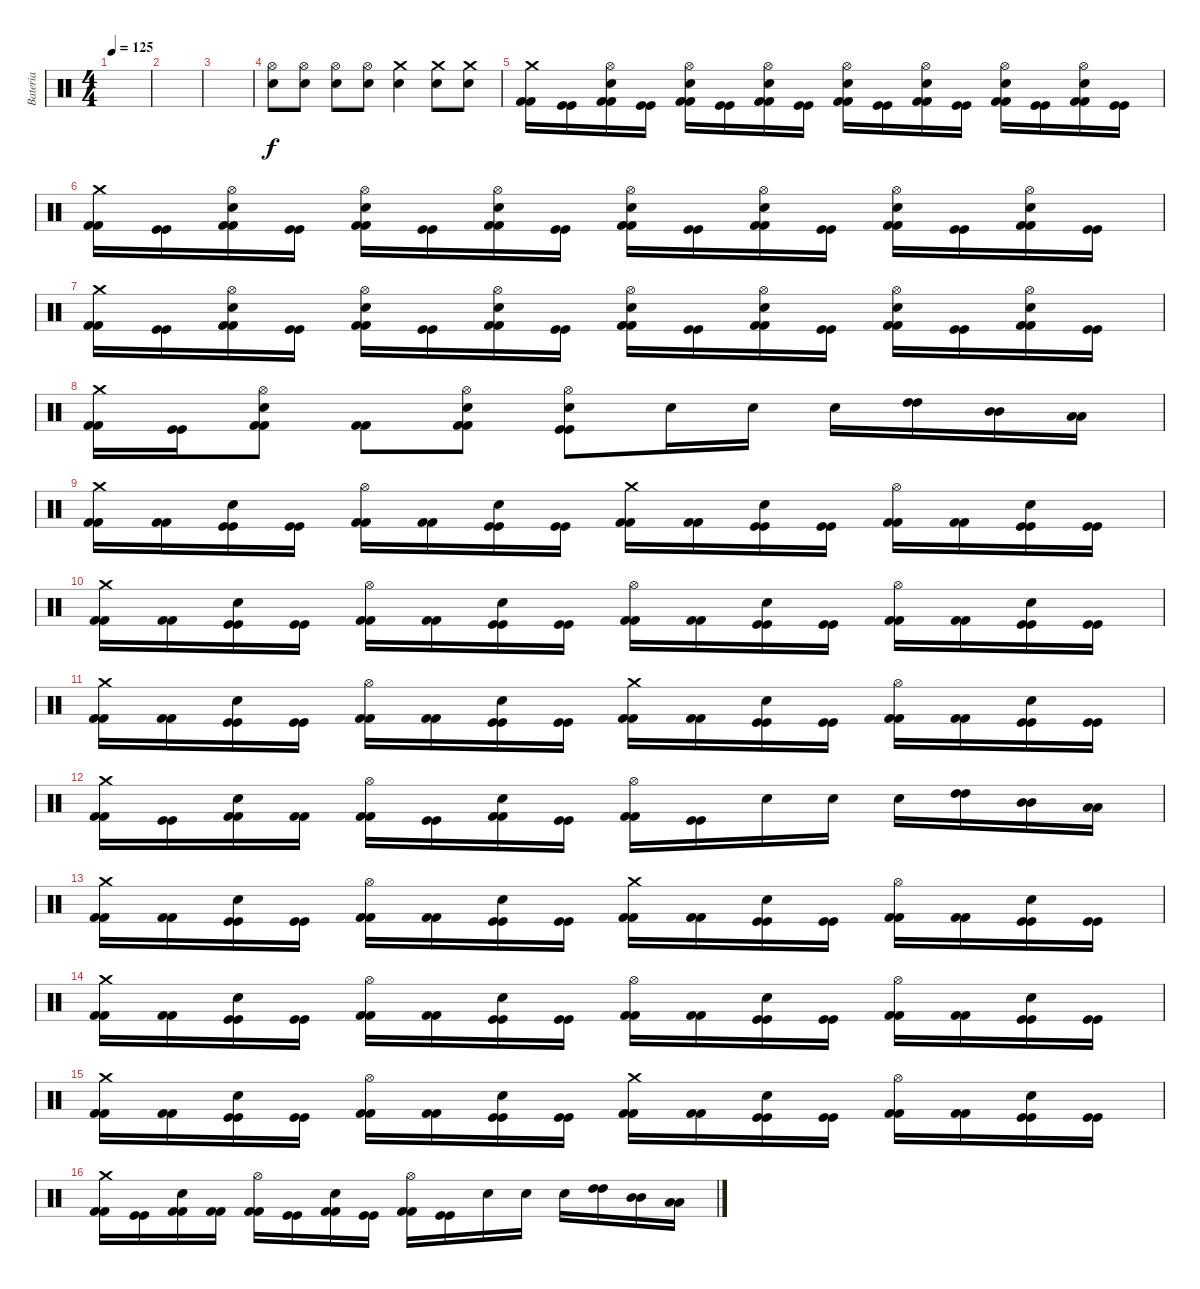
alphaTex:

\track ("Bateria" "Bateria") {instrument percussion}
\staff {score}
\articulation defaults
\ts (4 4)
\tempo 125
\clef neutral
\ks c
|
|
|
("Hi-Hat (open)" "Electric Snare (hit)").8 ("Hi-Hat (open)" "Electric Snare (hit)").8 ("Hi-Hat (open)" "Electric Snare (hit)").8 ("Hi-Hat (open)" "Electric Snare (hit)").8 ("Crash medium (hit)" "Electric Snare (hit)").4 ("Crash medium (hit)" "Electric Snare (hit)").8 ("Crash medium (hit)" "Electric Snare (hit)").8 |
("Crash medium (hit)" "Kick (hit) 2" "Kick (hit) 2").16 ("Kick (hit)" "Kick (hit)").16 ("Hi-Hat (open)" "Electric Snare (hit)" "Kick (hit) 2" "Kick (hit) 2").16 ("Kick (hit)" "Kick (hit)").16 ("Hi-Hat (open)" "Electric Snare (hit)" "Kick (hit) 2" "Kick (hit) 2").16 ("Kick (hit)" "Kick (hit)").16 ("Hi-Hat (open)" "Electric Snare (hit)" "Kick (hit) 2" "Kick (hit) 2").16 ("Kick (hit)" "Kick (hit)").16 ("Hi-Hat (open)" "Electric Snare (hit)" "Kick (hit) 2" "Kick (hit) 2").16 ("Kick (hit)" "Kick (hit)").16 ("Hi-Hat (open)" "Electric Snare (hit)" "Kick (hit) 2" "Kick (hit) 2").16 ("Kick (hit)" "Kick (hit)").16 ("Hi-Hat (open)" "Electric Snare (hit)" "Kick (hit) 2" "Kick (hit) 2").16 ("Kick (hit)" "Kick (hit)").16 ("Hi-Hat (open)" "Electric Snare (hit)" "Kick (hit) 2" "Kick (hit) 2").16 ("Kick (hit)" "Kick (hit)").16 |
("Crash medium (hit)" "Kick (hit) 2" "Kick (hit) 2").16 ("Kick (hit)" "Kick (hit)").16 ("Hi-Hat (open)" "Electric Snare (hit)" "Kick (hit) 2" "Kick (hit) 2").16 ("Kick (hit)" "Kick (hit)").16 ("Hi-Hat (open)" "Electric Snare (hit)" "Kick (hit) 2" "Kick (hit) 2").16 ("Kick (hit)" "Kick (hit)").16 ("Hi-Hat (open)" "Electric Snare (hit)" "Kick (hit) 2" "Kick (hit) 2").16 ("Kick (hit)" "Kick (hit)").16 ("Hi-Hat (open)" "Electric Snare (hit)" "Kick (hit) 2" "Kick (hit) 2").16 ("Kick (hit)" "Kick (hit)").16 ("Hi-Hat (open)" "Electric Snare (hit)" "Kick (hit) 2" "Kick (hit) 2").16 ("Kick (hit)" "Kick (hit)").16 ("Hi-Hat (open)" "Electric Snare (hit)" "Kick (hit) 2" "Kick (hit) 2").16 ("Kick (hit)" "Kick (hit)").16 ("Hi-Hat (open)" "Electric Snare (hit)" "Kick (hit) 2" "Kick (hit) 2").16 ("Kick (hit)" "Kick (hit)").16 |
("Crash medium (hit)" "Kick (hit) 2" "Kick (hit) 2").16 ("Kick (hit)" "Kick (hit)").16 ("Hi-Hat (open)" "Electric Snare (hit)" "Kick (hit) 2" "Kick (hit) 2").16 ("Kick (hit)" "Kick (hit)").16 ("Hi-Hat (open)" "Electric Snare (hit)" "Kick (hit) 2" "Kick (hit) 2").16 ("Kick (hit)" "Kick (hit)").16 ("Hi-Hat (open)" "Electric Snare (hit)" "Kick (hit) 2" "Kick (hit) 2").16 ("Kick (hit)" "Kick (hit)").16 ("Hi-Hat (open)" "Electric Snare (hit)" "Kick (hit) 2" "Kick (hit) 2").16 ("Kick (hit)" "Kick (hit)").16 ("Hi-Hat (open)" "Electric Snare (hit)" "Kick (hit) 2" "Kick (hit) 2").16 ("Kick (hit)" "Kick (hit)").16 ("Hi-Hat (open)" "Electric Snare (hit)" "Kick (hit) 2" "Kick (hit) 2").16 ("Kick (hit)" "Kick (hit)").16 ("Hi-Hat (open)" "Electric Snare (hit)" "Kick (hit) 2" "Kick (hit) 2").16 ("Kick (hit)" "Kick (hit)").16 |
("Crash medium (hit)" "Kick (hit) 2" "Kick (hit) 2").16 ("Kick (hit)" "Kick (hit)").16 ("Hi-Hat (open)" "Electric Snare (hit)" "Kick (hit) 2" "Kick (hit) 2").8 ("Kick (hit) 2" "Kick (hit) 2").8 ("Hi-Hat (open)" "Electric Snare (hit)" "Kick (hit) 2" "Kick (hit) 2").8 ("Hi-Hat (open)" "Electric Snare (hit)" "Kick (hit)" "Kick (hit)").8 "Electric Snare (hit)".16 "Electric Snare (hit)".16 "Electric Snare (hit)".16 ("High Tom (hit)" "High Tom (hit)").16 ("Mid Tom (hit)" "Mid Tom (hit)").16 ("Low Tom (hit)" "Low Tom (hit)").16 |
("Crash medium (hit)" "Kick (hit) 2" "Kick (hit) 2").16 ("Kick (hit) 2" "Kick (hit) 2").16 ("Electric Snare (hit)" "Kick (hit)" "Kick (hit)").16 ("Kick (hit)" "Kick (hit)").16 ("Hi-Hat (open)" "Kick (hit) 2" "Kick (hit) 2").16 ("Kick (hit) 2" "Kick (hit) 2").16 ("Electric Snare (hit)" "Kick (hit)" "Kick (hit)").16 ("Kick (hit)" "Kick (hit)").16 ("Crash medium (hit)" "Kick (hit) 2" "Kick (hit) 2").16 ("Kick (hit) 2" "Kick (hit) 2").16 ("Electric Snare (hit)" "Kick (hit)" "Kick (hit)").16 ("Kick (hit)" "Kick (hit)").16 ("Hi-Hat (open)" "Kick (hit) 2" "Kick (hit) 2").16 ("Kick (hit) 2" "Kick (hit) 2").16 ("Electric Snare (hit)" "Kick (hit)" "Kick (hit)").16 ("Kick (hit)" "Kick (hit)").16 |
("Crash medium (hit)" "Kick (hit) 2" "Kick (hit) 2").16 ("Kick (hit) 2" "Kick (hit) 2").16 ("Electric Snare (hit)" "Kick (hit)" "Kick (hit)").16 ("Kick (hit)" "Kick (hit)").16 ("Hi-Hat (open)" "Kick (hit) 2" "Kick (hit) 2").16 ("Kick (hit) 2" "Kick (hit) 2").16 ("Electric Snare (hit)" "Kick (hit)" "Kick (hit)").16 ("Kick (hit)" "Kick (hit)").16 ("Hi-Hat (open)" "Kick (hit) 2" "Kick (hit) 2").16 ("Kick (hit) 2" "Kick (hit) 2").16 ("Electric Snare (hit)" "Kick (hit)" "Kick (hit)").16 ("Kick (hit)" "Kick (hit)").16 ("Hi-Hat (open)" "Kick (hit) 2" "Kick (hit) 2").16 ("Kick (hit) 2" "Kick (hit) 2").16 ("Electric Snare (hit)" "Kick (hit)" "Kick (hit)").16 ("Kick (hit)" "Kick (hit)").16 |
("Crash medium (hit)" "Kick (hit) 2" "Kick (hit) 2").16 ("Kick (hit) 2" "Kick (hit) 2").16 ("Electric Snare (hit)" "Kick (hit)" "Kick (hit)").16 ("Kick (hit)" "Kick (hit)").16 ("Hi-Hat (open)" "Kick (hit) 2" "Kick (hit) 2").16 ("Kick (hit) 2" "Kick (hit) 2").16 ("Electric Snare (hit)" "Kick (hit)" "Kick (hit)").16 ("Kick (hit)" "Kick (hit)").16 ("Crash medium (hit)" "Kick (hit) 2" "Kick (hit) 2").16 ("Kick (hit) 2" "Kick (hit) 2").16 ("Electric Snare (hit)" "Kick (hit)" "Kick (hit)").16 ("Kick (hit)" "Kick (hit)").16 ("Hi-Hat (open)" "Kick (hit) 2" "Kick (hit) 2").16 ("Kick (hit) 2" "Kick (hit) 2").16 ("Electric Snare (hit)" "Kick (hit)" "Kick (hit)").16 ("Kick (hit)" "Kick (hit)").16 |
("Crash medium (hit)" "Kick (hit) 2" "Kick (hit) 2").16 ("Kick (hit)" "Kick (hit)").16 ("Electric Snare (hit)" "Kick (hit) 2" "Kick (hit) 2").16 ("Kick (hit) 2" "Kick (hit) 2").16 ("Hi-Hat (open)" "Kick (hit) 2" "Kick (hit) 2").16 ("Kick (hit)" "Kick (hit)").16 ("Electric Snare (hit)" "Kick (hit) 2" "Kick (hit) 2").16 ("Kick (hit)" "Kick (hit)").16 ("Hi-Hat (open)" "Kick (hit) 2" "Kick (hit) 2").16 ("Kick (hit)" "Kick (hit)").16 "Electric Snare (hit)".16 "Electric Snare (hit)".16 "Electric Snare (hit)".16 ("High Tom (hit)" "High Tom (hit)").16 ("Mid Tom (hit)" "Mid Tom (hit)").16 ("Low Tom (hit)" "Low Tom (hit)").16 |
("Crash medium (hit)" "Kick (hit) 2" "Kick (hit) 2").16 ("Kick (hit) 2" "Kick (hit) 2").16 ("Electric Snare (hit)" "Kick (hit)" "Kick (hit)").16 ("Kick (hit)" "Kick (hit)").16 ("Hi-Hat (open)" "Kick (hit) 2" "Kick (hit) 2").16 ("Kick (hit) 2" "Kick (hit) 2").16 ("Electric Snare (hit)" "Kick (hit)" "Kick (hit)").16 ("Kick (hit)" "Kick (hit)").16 ("Crash medium (hit)" "Kick (hit) 2" "Kick (hit) 2").16 ("Kick (hit) 2" "Kick (hit) 2").16 ("Electric Snare (hit)" "Kick (hit)" "Kick (hit)").16 ("Kick (hit)" "Kick (hit)").16 ("Hi-Hat (open)" "Kick (hit) 2" "Kick (hit) 2").16 ("Kick (hit) 2" "Kick (hit) 2").16 ("Electric Snare (hit)" "Kick (hit)" "Kick (hit)").16 ("Kick (hit)" "Kick (hit)").16 |
("Crash medium (hit)" "Kick (hit) 2" "Kick (hit) 2").16 ("Kick (hit) 2" "Kick (hit) 2").16 ("Electric Snare (hit)" "Kick (hit)" "Kick (hit)").16 ("Kick (hit)" "Kick (hit)").16 ("Hi-Hat (open)" "Kick (hit) 2" "Kick (hit) 2").16 ("Kick (hit) 2" "Kick (hit) 2").16 ("Electric Snare (hit)" "Kick (hit)" "Kick (hit)").16 ("Kick (hit)" "Kick (hit)").16 ("Hi-Hat (open)" "Kick (hit) 2" "Kick (hit) 2").16 ("Kick (hit) 2" "Kick (hit) 2").16 ("Electric Snare (hit)" "Kick (hit)" "Kick (hit)").16 ("Kick (hit)" "Kick (hit)").16 ("Hi-Hat (open)" "Kick (hit) 2" "Kick (hit) 2").16 ("Kick (hit) 2" "Kick (hit) 2").16 ("Electric Snare (hit)" "Kick (hit)" "Kick (hit)").16 ("Kick (hit)" "Kick (hit)").16 |
("Crash medium (hit)" "Kick (hit) 2" "Kick (hit) 2").16 ("Kick (hit) 2" "Kick (hit) 2").16 ("Electric Snare (hit)" "Kick (hit)" "Kick (hit)").16 ("Kick (hit)" "Kick (hit)").16 ("Hi-Hat (open)" "Kick (hit) 2" "Kick (hit) 2").16 ("Kick (hit) 2" "Kick (hit) 2").16 ("Electric Snare (hit)" "Kick (hit)" "Kick (hit)").16 ("Kick (hit)" "Kick (hit)").16 ("Crash medium (hit)" "Kick (hit) 2" "Kick (hit) 2").16 ("Kick (hit) 2" "Kick (hit) 2").16 ("Electric Snare (hit)" "Kick (hit)" "Kick (hit)").16 ("Kick (hit)" "Kick (hit)").16 ("Hi-Hat (open)" "Kick (hit) 2" "Kick (hit) 2").16 ("Kick (hit) 2" "Kick (hit) 2").16 ("Electric Snare (hit)" "Kick (hit)" "Kick (hit)").16 ("Kick (hit)" "Kick (hit)").16 |
("Crash medium (hit)" "Kick (hit) 2" "Kick (hit) 2").16 ("Kick (hit)" "Kick (hit)").16 ("Electric Snare (hit)" "Kick (hit) 2" "Kick (hit) 2").16 ("Kick (hit) 2" "Kick (hit) 2").16 ("Hi-Hat (open)" "Kick (hit) 2" "Kick (hit) 2").16 ("Kick (hit)" "Kick (hit)").16 ("Electric Snare (hit)" "Kick (hit) 2" "Kick (hit) 2").16 ("Kick (hit)" "Kick (hit)").16 ("Hi-Hat (open)" "Kick (hit) 2" "Kick (hit) 2").16 ("Kick (hit)" "Kick (hit)").16 "Electric Snare (hit)".16 "Electric Snare (hit)".16 "Electric Snare (hit)".16 ("High Tom (hit)" "High Tom (hit)").16 ("Mid Tom (hit)" "Mid Tom (hit)").16 ("Low Tom (hit)" "Low Tom (hit)").16
